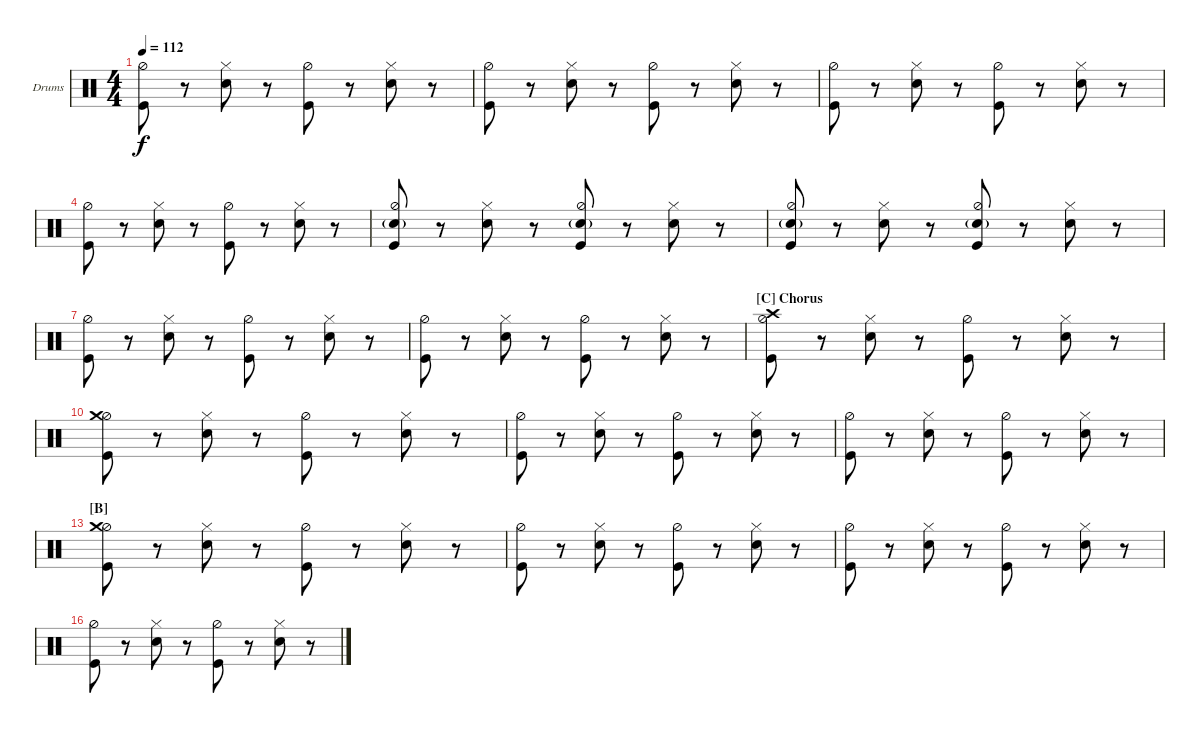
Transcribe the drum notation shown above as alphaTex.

\bracketExtendMode nobrackets
\firstSystemTrackNameOrientation horizontal
\otherSystemsTrackNameOrientation horizontal
\defaultBarNumberDisplay FirstOfSystem
\track ("Drumkit" "Drums") {instrument percussion}
\staff {score}
\articulation defaults
\ts (4 4)
\tempo 112
\clef neutral
\scale
0.333333
\ks c
("Kick (hit)" "Hi-Hat (half)").8{dy f} r.8 ("Snare (hit) 2" "Hi-Hat (closed)").8 r.8 ("Kick (hit)" "Hi-Hat (half)").8 r.8 ("Snare (hit) 2" "Hi-Hat (closed)").8 r.8 |
\scale
0.333333 ("Kick (hit)" "Hi-Hat (half)").8 r.8 ("Snare (hit) 2" "Hi-Hat (closed)").8 r.8 ("Kick (hit)" "Hi-Hat (half)").8 r.8 ("Snare (hit) 2" "Hi-Hat (closed)").8 r.8 |
\scale
0.333333 ("Kick (hit)" "Hi-Hat (half)").8 r.8 ("Snare (hit) 2" "Hi-Hat (closed)").8 r.8 ("Kick (hit)" "Hi-Hat (half)").8 r.8 ("Snare (hit) 2" "Hi-Hat (closed)").8 r.8 |
\scale
0.333333 ("Kick (hit)" "Hi-Hat (half)").8 r.8 ("Snare (hit) 2" "Hi-Hat (closed)").8 r.8 ("Kick (hit)" "Hi-Hat (half)").8 r.8 ("Snare (hit) 2" "Hi-Hat (closed)").8 r.8 |
\scale
0.333333 ("Kick (hit)" "Hi-Hat (half)" "Snare (hit) 2"{g}).8 r.8 ("Snare (hit) 2" "Hi-Hat (closed)").8 r.8 ("Kick (hit)" "Hi-Hat (half)" "Snare (hit) 2"{g}).8 r.8 ("Snare (hit) 2" "Hi-Hat (closed)").8 r.8 |
\scale
0.333333 ("Kick (hit)" "Hi-Hat (half)" "Snare (hit) 2"{g}).8 r.8 ("Snare (hit) 2" "Hi-Hat (closed)").8 r.8 ("Kick (hit)" "Hi-Hat (half)" "Snare (hit) 2"{g}).8 r.8 ("Snare (hit) 2" "Hi-Hat (closed)").8 r.8 |
\scale
0.333333 ("Kick (hit)" "Hi-Hat (half)").8 r.8 ("Snare (hit) 2" "Hi-Hat (closed)").8 r.8 ("Kick (hit)" "Hi-Hat (half)").8 r.8 ("Snare (hit) 2" "Hi-Hat (closed)").8 r.8 |
\scale
0.333333 ("Kick (hit)" "Hi-Hat (half)").8 r.8 ("Snare (hit) 2" "Hi-Hat (closed)").8 r.8 ("Kick (hit)" "Hi-Hat (half)").8 r.8 ("Snare (hit) 2" "Hi-Hat (closed)").8 r.8 |
\section ("C" "Chorus")
\scale
0.333333 ("Kick (hit)" "Hi-Hat (half)" "Crash high (hit)").8 r.8 ("Snare (hit) 2" "Hi-Hat (closed)").8 r.8 ("Kick (hit)" "Hi-Hat (half)").8 r.8 ("Snare (hit) 2" "Hi-Hat (closed)").8 r.8 |
\scale
0.333333 ("Kick (hit)" "Hi-Hat (half)" "Crash medium (hit)").8 r.8 ("Snare (hit) 2" "Hi-Hat (closed)").8 r.8 ("Kick (hit)" "Hi-Hat (half)").8 r.8 ("Snare (hit) 2" "Hi-Hat (closed)").8 r.8 |
\scale
0.333333 ("Kick (hit)" "Hi-Hat (half)").8 r.8 ("Snare (hit) 2" "Hi-Hat (closed)").8 r.8 ("Kick (hit)" "Hi-Hat (half)").8 r.8 ("Snare (hit) 2" "Hi-Hat (closed)").8 r.8 |
\scale
0.333333 ("Kick (hit)" "Hi-Hat (half)").8 r.8 ("Snare (hit) 2" "Hi-Hat (closed)").8 r.8 ("Kick (hit)" "Hi-Hat (half)").8 r.8 ("Snare (hit) 2" "Hi-Hat (closed)").8 r.8 |
\section ("B" "")
\scale
0.333333 ("Kick (hit)" "Hi-Hat (half)" "Crash medium (hit)").8 r.8 ("Snare (hit) 2" "Hi-Hat (closed)").8 r.8 ("Kick (hit)" "Hi-Hat (half)").8 r.8 ("Snare (hit) 2" "Hi-Hat (closed)").8 r.8 |
\scale
0.333333 ("Kick (hit)" "Hi-Hat (half)").8 r.8 ("Snare (hit) 2" "Hi-Hat (closed)").8 r.8 ("Kick (hit)" "Hi-Hat (half)").8 r.8 ("Snare (hit) 2" "Hi-Hat (closed)").8 r.8 |
\scale
0.333333 ("Kick (hit)" "Hi-Hat (half)").8 r.8 ("Snare (hit) 2" "Hi-Hat (closed)").8 r.8 ("Kick (hit)" "Hi-Hat (half)").8 r.8 ("Snare (hit) 2" "Hi-Hat (closed)").8 r.8 |
\scale
0.333333 ("Kick (hit)" "Hi-Hat (half)").8 r.8 ("Snare (hit) 2" "Hi-Hat (closed)").8 r.8 ("Kick (hit)" "Hi-Hat (half)").8 r.8 ("Snare (hit) 2" "Hi-Hat (closed)").8 r.8
